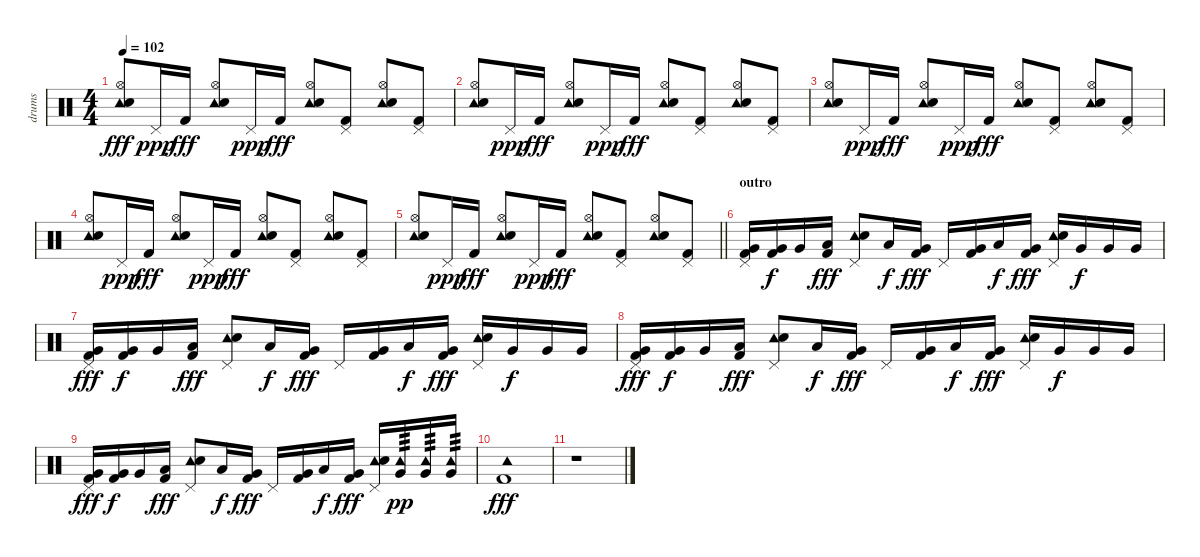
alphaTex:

\track ("drums" "drums") {instrument percussion}
\staff {score}
\articulation defaults
\ts (4 4)
\tempo 102
\clef neutral
\ks c
("Tambourine (hit)" "Hi-Hat (open)" "Electric Snare (hit)").8{dy fff} "Pedal Hi-Hat (hit)".16{dy ppp} "Kick (hit) 2".16{dy fff} ("Tambourine (hit)" "Hi-Hat (open)" "Electric Snare (hit)").8 "Pedal Hi-Hat (hit)".16{dy ppp} "Kick (hit) 2".16{dy fff} ("Tambourine (hit)" "Hi-Hat (open)" "Electric Snare (hit)").8 ("Pedal Hi-Hat (hit)" "Kick (hit) 2").8 ("Tambourine (hit)" "Hi-Hat (open)" "Electric Snare (hit)").8 ("Pedal Hi-Hat (hit)" "Kick (hit) 2").8 |
("Tambourine (hit)" "Hi-Hat (open)" "Electric Snare (hit)").8 "Pedal Hi-Hat (hit)".16{dy ppp} "Kick (hit) 2".16{dy fff} ("Tambourine (hit)" "Hi-Hat (open)" "Electric Snare (hit)").8 "Pedal Hi-Hat (hit)".16{dy ppp} "Kick (hit) 2".16{dy fff} ("Tambourine (hit)" "Hi-Hat (open)" "Electric Snare (hit)").8 ("Pedal Hi-Hat (hit)" "Kick (hit) 2").8 ("Tambourine (hit)" "Hi-Hat (open)" "Electric Snare (hit)").8 ("Pedal Hi-Hat (hit)" "Kick (hit) 2").8 |
("Tambourine (hit)" "Hi-Hat (open)" "Electric Snare (hit)").8 "Pedal Hi-Hat (hit)".16{dy ppp} "Kick (hit) 2".16{dy fff} ("Tambourine (hit)" "Hi-Hat (open)" "Electric Snare (hit)").8 "Pedal Hi-Hat (hit)".16{dy ppp} "Kick (hit) 2".16{dy fff} ("Tambourine (hit)" "Hi-Hat (open)" "Electric Snare (hit)").8 ("Pedal Hi-Hat (hit)" "Kick (hit) 2").8 ("Tambourine (hit)" "Hi-Hat (open)" "Electric Snare (hit)").8 ("Pedal Hi-Hat (hit)" "Kick (hit) 2").8 |
("Tambourine (hit)" "Hi-Hat (open)" "Electric Snare (hit)").8 "Pedal Hi-Hat (hit)".16{dy ppp} "Kick (hit) 2".16{dy fff} ("Tambourine (hit)" "Hi-Hat (open)" "Electric Snare (hit)").8 "Pedal Hi-Hat (hit)".16{dy ppp} "Kick (hit) 2".16{dy fff} ("Tambourine (hit)" "Hi-Hat (open)" "Electric Snare (hit)").8 ("Pedal Hi-Hat (hit)" "Kick (hit) 2").8 ("Tambourine (hit)" "Hi-Hat (open)" "Electric Snare (hit)").8 ("Pedal Hi-Hat (hit)" "Kick (hit) 2").8 |
\barLineRight lightlight
("Tambourine (hit)" "Hi-Hat (open)" "Electric Snare (hit)").8 "Pedal Hi-Hat (hit)".16{dy ppp} "Kick (hit) 2".16{dy fff} ("Tambourine (hit)" "Hi-Hat (open)" "Electric Snare (hit)").8 "Pedal Hi-Hat (hit)".16{dy ppp} "Kick (hit) 2".16{dy fff} ("Tambourine (hit)" "Hi-Hat (open)" "Electric Snare (hit)").8 ("Pedal Hi-Hat (hit)" "Kick (hit) 2").8 ("Tambourine (hit)" "Hi-Hat (open)" "Electric Snare (hit)").8 ("Pedal Hi-Hat (hit)" "Kick (hit) 2").8 |
\section ("" "outro")
("Pedal Hi-Hat (hit)" "Very Low Tom (hit)" "Kick (hit) 2").16 ("Very Low Tom (hit)" "Kick (hit) 2").16{dy f} "Very Low Tom (hit)".16 ("Low Tom (hit)" "Kick (hit) 2").16{dy fff} ("Tambourine (hit)" "Pedal Hi-Hat (hit)" "Electric Snare (hit)").8 "Low Tom (hit)".16{dy f} ("Very Low Tom (hit)" "Kick (hit) 2").16{dy fff} "Pedal Hi-Hat (hit)".16 ("Very Low Tom (hit)" "Kick (hit) 2").16 "Low Tom (hit)".16{dy f} ("Very Low Tom (hit)" "Kick (hit) 2").16{dy fff} ("Tambourine (hit)" "Pedal Hi-Hat (hit)" "Electric Snare (hit)").16 "Very Low Tom (hit)".16{dy f} "Very Low Tom (hit)".16 "Very Low Tom (hit)".16 |
("Pedal Hi-Hat (hit)" "Very Low Tom (hit)" "Kick (hit) 2").16{dy fff} ("Very Low Tom (hit)" "Kick (hit) 2").16{dy f} "Very Low Tom (hit)".16 ("Low Tom (hit)" "Kick (hit) 2").16{dy fff} ("Tambourine (hit)" "Pedal Hi-Hat (hit)" "Electric Snare (hit)").8 "Low Tom (hit)".16{dy f} ("Very Low Tom (hit)" "Kick (hit) 2").16{dy fff} "Pedal Hi-Hat (hit)".16 ("Very Low Tom (hit)" "Kick (hit) 2").16 "Low Tom (hit)".16{dy f} ("Very Low Tom (hit)" "Kick (hit) 2").16{dy fff} ("Tambourine (hit)" "Pedal Hi-Hat (hit)" "Electric Snare (hit)").16 "Very Low Tom (hit)".16{dy f} "Very Low Tom (hit)".16 "Very Low Tom (hit)".16 |
("Pedal Hi-Hat (hit)" "Very Low Tom (hit)" "Kick (hit) 2").16{dy fff} ("Very Low Tom (hit)" "Kick (hit) 2").16{dy f} "Very Low Tom (hit)".16 ("Low Tom (hit)" "Kick (hit) 2").16{dy fff} ("Tambourine (hit)" "Pedal Hi-Hat (hit)" "Electric Snare (hit)").8 "Low Tom (hit)".16{dy f} ("Very Low Tom (hit)" "Kick (hit) 2").16{dy fff} "Pedal Hi-Hat (hit)".16 ("Very Low Tom (hit)" "Kick (hit) 2").16 "Low Tom (hit)".16{dy f} ("Very Low Tom (hit)" "Kick (hit) 2").16{dy fff} ("Tambourine (hit)" "Pedal Hi-Hat (hit)" "Electric Snare (hit)").16 "Very Low Tom (hit)".16{dy f} "Very Low Tom (hit)".16 "Very Low Tom (hit)".16 |
("Pedal Hi-Hat (hit)" "Very Low Tom (hit)" "Kick (hit) 2").16{dy fff} ("Very Low Tom (hit)" "Kick (hit) 2").16{dy f} "Very Low Tom (hit)".16 ("Low Tom (hit)" "Kick (hit) 2").16{dy fff} ("Tambourine (hit)" "Pedal Hi-Hat (hit)" "Electric Snare (hit)").8 "Low Tom (hit)".16{dy f} ("Very Low Tom (hit)" "Kick (hit) 2").16{dy fff} "Pedal Hi-Hat (hit)".16 ("Very Low Tom (hit)" "Kick (hit) 2").16 "Low Tom (hit)".16{dy f} ("Very Low Tom (hit)" "Kick (hit) 2").16{dy fff} ("Tambourine (hit)" "Pedal Hi-Hat (hit)" "Electric Snare (hit)").16 ("Tambourine (hit)" "Very Low Tom (hit)").16{tp 3 dy pp} ("Tambourine (hit)" "Very Low Tom (hit)").16{tp 3} ("Tambourine (hit)" "Very Low Tom (hit)").16{tp 3} |
("Tambourine (hit)" "Kick (hit) 2").1{dy fff} |
r.1
